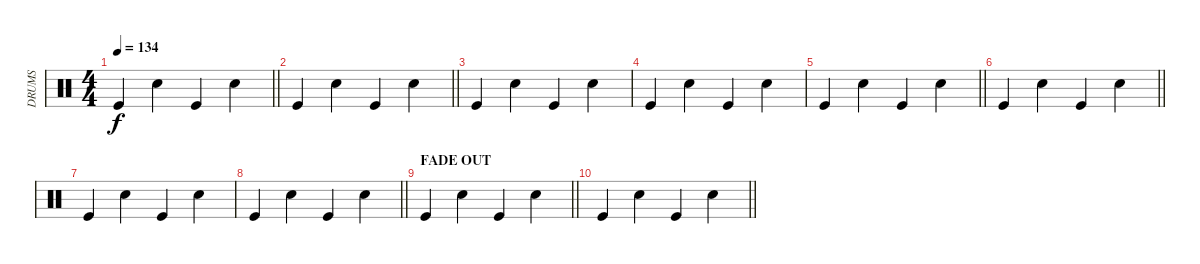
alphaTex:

\track ("DRUMS" "DRUMS") {instrument percussion}
\staff {score}
\articulation defaults
\ts (4 4)
\tempo 134
\clef neutral
\barLineRight lightlight
\ks c "Kick (hit)".4{dy f} "Snare (hit) 2".4 "Kick (hit)".4 "Snare (hit) 2".4
|
\barLineRight lightlight "Kick (hit)".4 "Snare (hit) 2".4 "Kick (hit)".4 "Snare (hit) 2".4
|
"Kick (hit)".4 "Snare (hit) 2".4 "Kick (hit)".4 "Snare (hit) 2".4 |
"Kick (hit)".4 "Snare (hit) 2".4 "Kick (hit)".4 "Snare (hit) 2".4 |
\barLineRight lightlight "Kick (hit)".4 "Snare (hit) 2".4 "Kick (hit)".4 "Snare (hit) 2".4
|
\barLineRight lightlight "Kick (hit)".4 "Snare (hit) 2".4 "Kick (hit)".4 "Snare (hit) 2".4
|
"Kick (hit)".4 "Snare (hit) 2".4 "Kick (hit)".4 "Snare (hit) 2".4 |
\barLineRight lightlight "Kick (hit)".4 "Snare (hit) 2".4 "Kick (hit)".4 "Snare (hit) 2".4
|
\section ("" "FADE OUT")
\barLineRight lightlight "Kick (hit)".4 "Snare (hit) 2".4 "Kick (hit)".4 "Snare (hit) 2".4
|
\barLineRight lightlight "Kick (hit)".4 "Snare (hit) 2".4 "Kick (hit)".4 "Snare (hit) 2".4
